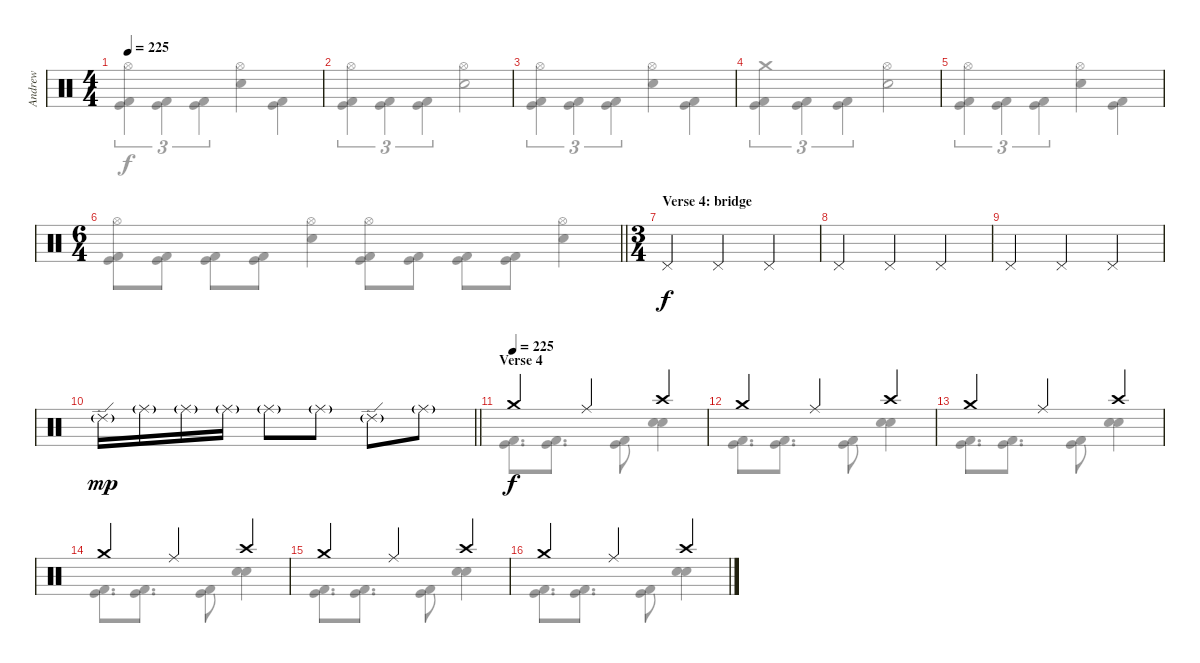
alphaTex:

\track ("Andrew" "Andrew") {instrument percussion}
\staff {score}
\articulation defaults
\voice
\ts (4 4)
\tempo 225
\clef neutral
\ks c
|
|
|
|
|
\ts (6 4)
\barLineRight lightlight
|
\ts (3 4)
\section ("" "Verse 4: bridge")
"Pedal Hi-Hat (hit)".4 "Pedal Hi-Hat (hit)".4 "Pedal Hi-Hat (hit)".4 |
"Pedal Hi-Hat (hit)".4 "Pedal Hi-Hat (hit)".4 "Pedal Hi-Hat (hit)".4 |
"Pedal Hi-Hat (hit)".4 "Pedal Hi-Hat (hit)".4 "Pedal Hi-Hat (hit)".4 |
\barLineRight lightlight "Ride (edge) 2"{g}.16{dy mp} "Ride (middle)"{g}.16 "Ride (middle)"{g}.16 "Ride (middle)"{g}.16 "Ride (middle)"{g}.8 "Ride (middle)"{g}.8 "Ride (edge) 2"{g}.8 "Ride (middle)"{g}.8
|
\section ("" "Verse 4")
\tempo (225)
"Crash medium (hit)".4{dy f} "Ride (middle)".4 "Crash high (hit)".4 |
"Crash medium (hit)".4 "Ride (middle)".4 "Crash high (hit)".4 |
"Crash medium (hit)".4 "Ride (middle)".4 "Crash high (hit)".4 |
"Crash medium (hit)".4 "Ride (middle)".4 "Crash high (hit)".4 |
"Crash medium (hit)".4 "Ride (middle)".4 "Crash high (hit)".4 |
"Crash medium (hit)".4 "Ride (middle)".4 "Crash high (hit)".4
\voice
\clef neutral
\ottava regular
\simile none
\ks c
("Hi-Hat (open)" "Kick (hit)" "Kick (hit) 2").4{tu (3 2) dy f} ("Kick (hit)" "Kick (hit) 2").4{tu (3 2)} ("Kick (hit)" "Kick (hit) 2").4{tu (3 2)} ("Hi-Hat (open)" "Electric Snare (hit)").4 ("Kick (hit)" "Kick (hit) 2").4 |
("Hi-Hat (open)" "Kick (hit)" "Kick (hit) 2").4{tu (3 2)} ("Kick (hit)" "Kick (hit) 2").4{tu (3 2)} ("Kick (hit)" "Kick (hit) 2").4{tu (3 2)} ("Hi-Hat (open)" "Electric Snare (hit)").2 |
("Hi-Hat (open)" "Kick (hit)" "Kick (hit) 2").4{tu (3 2)} ("Kick (hit)" "Kick (hit) 2").4{tu (3 2)} ("Kick (hit)" "Kick (hit) 2").4{tu (3 2)} ("Hi-Hat (open)" "Electric Snare (hit)").4 ("Kick (hit)" "Kick (hit) 2").4 |
("Crash medium (hit)" "Kick (hit)" "Kick (hit) 2").4{tu (3 2)} ("Kick (hit)" "Kick (hit) 2").4{tu (3 2)} ("Kick (hit)" "Kick (hit) 2").4{tu (3 2)} ("Hi-Hat (open)" "Electric Snare (hit)").2 |
("Hi-Hat (open)" "Kick (hit)" "Kick (hit) 2").4{tu (3 2)} ("Kick (hit)" "Kick (hit) 2").4{tu (3 2)} ("Kick (hit)" "Kick (hit) 2").4{tu (3 2)} ("Hi-Hat (open)" "Electric Snare (hit)").4 ("Kick (hit)" "Kick (hit) 2").4 |
\barLineRight lightlight
("Hi-Hat (open)" "Kick (hit)" "Kick (hit) 2").8 ("Kick (hit)" "Kick (hit) 2").8 ("Kick (hit)" "Kick (hit) 2").8 ("Kick (hit)" "Kick (hit) 2").8 ("Hi-Hat (open)" "Snare (hit) 2").4 ("Hi-Hat (open)" "Kick (hit)" "Kick (hit) 2").8 ("Kick (hit)" "Kick (hit) 2").8 ("Kick (hit)" "Kick (hit) 2").8 ("Kick (hit)" "Kick (hit) 2").8 ("Hi-Hat (open)" "Snare (hit) 2").4 |
|
|
|
\barLineRight lightlight
|
("Kick (hit)" "Kick (hit) 2").8{d} ("Kick (hit)" "Kick (hit) 2").8{d} ("Kick (hit)" "Kick (hit) 2").8 ("Snare (hit) 2" "Snare (hit) 2").4 |
("Kick (hit)" "Kick (hit) 2").8{d} ("Kick (hit)" "Kick (hit) 2").8{d} ("Kick (hit)" "Kick (hit) 2").8 ("Snare (hit) 2" "Snare (hit) 2").4 |
("Kick (hit)" "Kick (hit) 2").8{d} ("Kick (hit)" "Kick (hit) 2").8{d} ("Kick (hit)" "Kick (hit) 2").8 ("Snare (hit) 2" "Snare (hit) 2").4 |
("Kick (hit)" "Kick (hit) 2").8{d} ("Kick (hit)" "Kick (hit) 2").8{d} ("Kick (hit)" "Kick (hit) 2").8 ("Snare (hit) 2" "Snare (hit) 2").4 |
("Kick (hit)" "Kick (hit) 2").8{d} ("Kick (hit)" "Kick (hit) 2").8{d} ("Kick (hit)" "Kick (hit) 2").8 ("Snare (hit) 2" "Snare (hit) 2").4 |
("Kick (hit)" "Kick (hit) 2").8{d} ("Kick (hit)" "Kick (hit) 2").8{d} ("Kick (hit)" "Kick (hit) 2").8 ("Snare (hit) 2" "Snare (hit) 2").4
